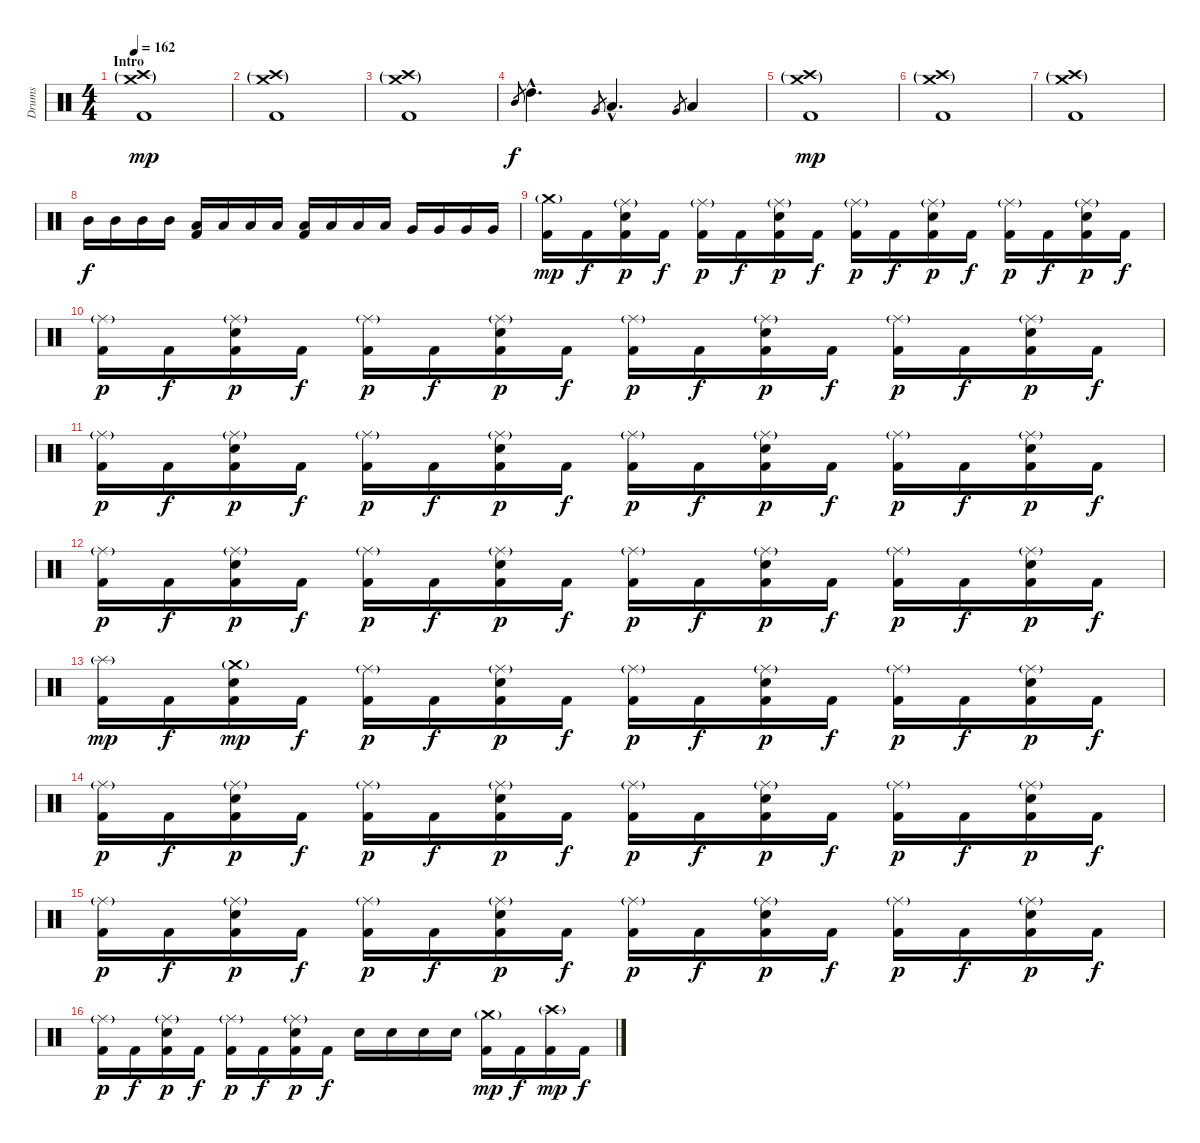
\track ("Drums" "Drums") {instrument percussion}
\staff {score}
\articulation defaults
\ts (4 4)
\section ("" "Intro")
\tempo 162
\clef neutral
\ks c
("Crash medium (hit)"{g} "Crash high (hit)"{g} "Kick (hit) 2").1{dy mp} |
("Crash medium (hit)"{g} "Crash high (hit)"{g} "Kick (hit) 2").1 |
("Crash medium (hit)"{g} "Crash high (hit)"{g} "Kick (hit) 2").1 |
"Mid Tom (hit)".8{gr dy f} "High Tom (hit)"{hac}.4{d} "Very Low Tom (hit)".8{gr} "Low Tom (hit)"{hac}.4{d} "Very Low Tom (hit)".8{gr} "Low Tom (hit)".4 |
("Crash medium (hit)"{g} "Crash high (hit)"{g} "Kick (hit) 2").1{dy mp} |
("Crash medium (hit)"{g} "Crash high (hit)"{g} "Kick (hit) 2").1 |
("Crash medium (hit)"{g} "Crash high (hit)"{g} "Kick (hit) 2").1 |
"Mid Tom (hit)".16{dy f} "Mid Tom (hit)".16 "Mid Tom (hit)".16 "Mid Tom (hit)".16 ("Low Tom (hit)" "Kick (hit) 2").16 "Low Tom (hit)".16 "Low Tom (hit)".16 "Low Tom (hit)".16 ("Low Tom (hit)" "Kick (hit) 2").16 "Low Tom (hit)".16 "Low Tom (hit)".16 "Low Tom (hit)".16 "Very Low Tom (hit)".16 "Very Low Tom (hit)".16 "Very Low Tom (hit)".16 "Very Low Tom (hit)".16 |
("Crash medium (hit)"{g} "Kick (hit) 2").16{dy mp} "Kick (hit) 2".16{dy f} ("Ride (middle)"{g} "Snare (hit) 2" "Kick (hit) 2").16{dy p} "Kick (hit) 2".16{dy f} ("Ride (middle)"{g} "Kick (hit) 2").16{dy p} "Kick (hit) 2".16{dy f} ("Ride (middle)"{g} "Snare (hit) 2" "Kick (hit) 2").16{dy p} "Kick (hit) 2".16{dy f} ("Ride (middle)"{g} "Kick (hit) 2").16{dy p} "Kick (hit) 2".16{dy f} ("Ride (middle)"{g} "Snare (hit) 2" "Kick (hit) 2").16{dy p} "Kick (hit) 2".16{dy f} ("Ride (middle)"{g} "Kick (hit) 2").16{dy p} "Kick (hit) 2".16{dy f} ("Ride (middle)"{g} "Snare (hit) 2" "Kick (hit) 2").16{dy p} "Kick (hit) 2".16{dy f} |
("Ride (middle)"{g} "Kick (hit) 2").16{dy p} "Kick (hit) 2".16{dy f} ("Ride (middle)"{g} "Snare (hit) 2" "Kick (hit) 2").16{dy p} "Kick (hit) 2".16{dy f} ("Ride (middle)"{g} "Kick (hit) 2").16{dy p} "Kick (hit) 2".16{dy f} ("Ride (middle)"{g} "Snare (hit) 2" "Kick (hit) 2").16{dy p} "Kick (hit) 2".16{dy f} ("Ride (middle)"{g} "Kick (hit) 2").16{dy p} "Kick (hit) 2".16{dy f} ("Ride (middle)"{g} "Snare (hit) 2" "Kick (hit) 2").16{dy p} "Kick (hit) 2".16{dy f} ("Ride (middle)"{g} "Kick (hit) 2").16{dy p} "Kick (hit) 2".16{dy f} ("Ride (middle)"{g} "Snare (hit) 2" "Kick (hit) 2").16{dy p} "Kick (hit) 2".16{dy f} |
("Ride (middle)"{g} "Kick (hit) 2").16{dy p} "Kick (hit) 2".16{dy f} ("Ride (middle)"{g} "Snare (hit) 2" "Kick (hit) 2").16{dy p} "Kick (hit) 2".16{dy f} ("Ride (middle)"{g} "Kick (hit) 2").16{dy p} "Kick (hit) 2".16{dy f} ("Ride (middle)"{g} "Snare (hit) 2" "Kick (hit) 2").16{dy p} "Kick (hit) 2".16{dy f} ("Ride (middle)"{g} "Kick (hit) 2").16{dy p} "Kick (hit) 2".16{dy f} ("Ride (middle)"{g} "Snare (hit) 2" "Kick (hit) 2").16{dy p} "Kick (hit) 2".16{dy f} ("Ride (middle)"{g} "Kick (hit) 2").16{dy p} "Kick (hit) 2".16{dy f} ("Ride (middle)"{g} "Snare (hit) 2" "Kick (hit) 2").16{dy p} "Kick (hit) 2".16{dy f} |
("Ride (middle)"{g} "Kick (hit) 2").16{dy p} "Kick (hit) 2".16{dy f} ("Ride (middle)"{g} "Snare (hit) 2" "Kick (hit) 2").16{dy p} "Kick (hit) 2".16{dy f} ("Ride (middle)"{g} "Kick (hit) 2").16{dy p} "Kick (hit) 2".16{dy f} ("Ride (middle)"{g} "Snare (hit) 2" "Kick (hit) 2").16{dy p} "Kick (hit) 2".16{dy f} ("Ride (middle)"{g} "Kick (hit) 2").16{dy p} "Kick (hit) 2".16{dy f} ("Ride (middle)"{g} "Snare (hit) 2" "Kick (hit) 2").16{dy p} "Kick (hit) 2".16{dy f} ("Ride (middle)"{g} "Kick (hit) 2").16{dy p} "Kick (hit) 2".16{dy f} ("Ride (middle)"{g} "Snare (hit) 2" "Kick (hit) 2").16{dy p} "Kick (hit) 2".16{dy f} |
("Splash (hit)"{g} "Kick (hit) 2").16{dy mp} "Kick (hit) 2".16{dy f} ("Crash medium (hit)"{g} "Snare (hit) 2" "Kick (hit) 2").16{dy mp} "Kick (hit) 2".16{dy f} ("Ride (middle)"{g} "Kick (hit) 2").16{dy p} "Kick (hit) 2".16{dy f} ("Ride (middle)"{g} "Snare (hit) 2" "Kick (hit) 2").16{dy p} "Kick (hit) 2".16{dy f} ("Ride (middle)"{g} "Kick (hit) 2").16{dy p} "Kick (hit) 2".16{dy f} ("Ride (middle)"{g} "Snare (hit) 2" "Kick (hit) 2").16{dy p} "Kick (hit) 2".16{dy f} ("Ride (middle)"{g} "Kick (hit) 2").16{dy p} "Kick (hit) 2".16{dy f} ("Ride (middle)"{g} "Snare (hit) 2" "Kick (hit) 2").16{dy p} "Kick (hit) 2".16{dy f} |
("Ride (middle)"{g} "Kick (hit) 2").16{dy p} "Kick (hit) 2".16{dy f} ("Ride (middle)"{g} "Snare (hit) 2" "Kick (hit) 2").16{dy p} "Kick (hit) 2".16{dy f} ("Ride (middle)"{g} "Kick (hit) 2").16{dy p} "Kick (hit) 2".16{dy f} ("Ride (middle)"{g} "Snare (hit) 2" "Kick (hit) 2").16{dy p} "Kick (hit) 2".16{dy f} ("Ride (middle)"{g} "Kick (hit) 2").16{dy p} "Kick (hit) 2".16{dy f} ("Ride (middle)"{g} "Snare (hit) 2" "Kick (hit) 2").16{dy p} "Kick (hit) 2".16{dy f} ("Ride (middle)"{g} "Kick (hit) 2").16{dy p} "Kick (hit) 2".16{dy f} ("Ride (middle)"{g} "Snare (hit) 2" "Kick (hit) 2").16{dy p} "Kick (hit) 2".16{dy f} |
("Ride (middle)"{g} "Kick (hit) 2").16{dy p} "Kick (hit) 2".16{dy f} ("Ride (middle)"{g} "Snare (hit) 2" "Kick (hit) 2").16{dy p} "Kick (hit) 2".16{dy f} ("Ride (middle)"{g} "Kick (hit) 2").16{dy p} "Kick (hit) 2".16{dy f} ("Ride (middle)"{g} "Snare (hit) 2" "Kick (hit) 2").16{dy p} "Kick (hit) 2".16{dy f} ("Ride (middle)"{g} "Kick (hit) 2").16{dy p} "Kick (hit) 2".16{dy f} ("Ride (middle)"{g} "Snare (hit) 2" "Kick (hit) 2").16{dy p} "Kick (hit) 2".16{dy f} ("Ride (middle)"{g} "Kick (hit) 2").16{dy p} "Kick (hit) 2".16{dy f} ("Ride (middle)"{g} "Snare (hit) 2" "Kick (hit) 2").16{dy p} "Kick (hit) 2".16{dy f} |
("Ride (middle)"{g} "Kick (hit) 2").16{dy p} "Kick (hit) 2".16{dy f} ("Ride (middle)"{g} "Snare (hit) 2" "Kick (hit) 2").16{dy p} "Kick (hit) 2".16{dy f} ("Ride (middle)"{g} "Kick (hit) 2").16{dy p} "Kick (hit) 2".16{dy f} ("Ride (middle)"{g} "Snare (hit) 2" "Kick (hit) 2").16{dy p} "Kick (hit) 2".16{dy f} "Snare (hit) 2".16 "Snare (hit) 2".16 "Snare (hit) 2".16 "Snare (hit) 2".16 ("Crash medium (hit)"{g} "Kick (hit) 2").16{dy mp} "Kick (hit) 2".16{dy f} ("Crash high (hit)"{g} "Kick (hit) 2").16{dy mp} "Kick (hit) 2".16{dy f}
